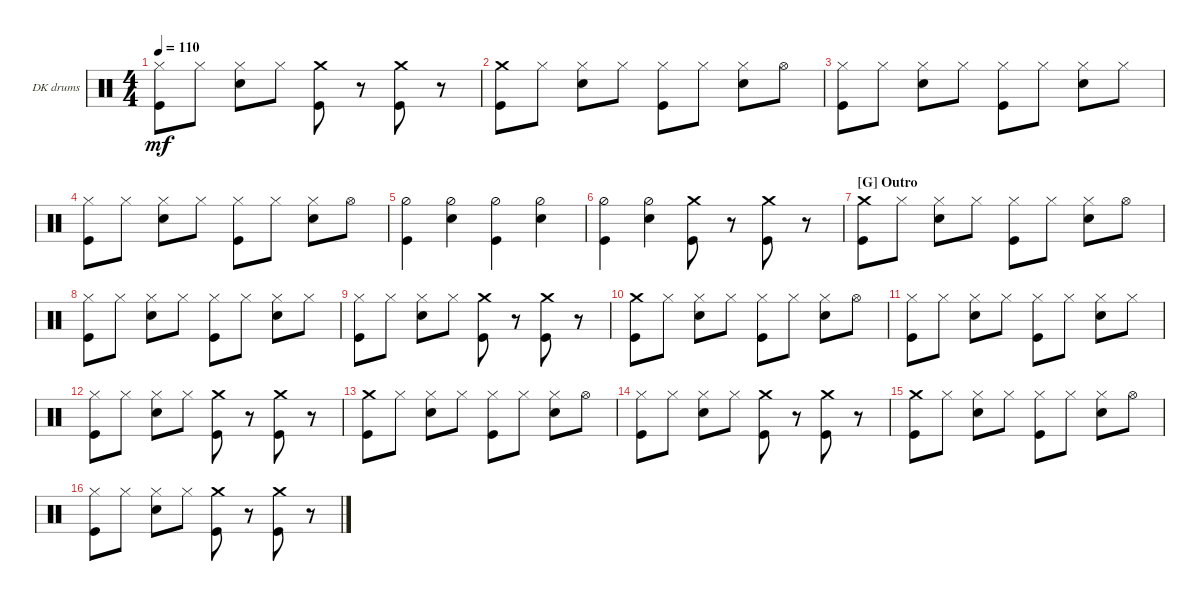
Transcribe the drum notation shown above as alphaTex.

\defaultSystemsLayout 4
\bracketExtendMode groupsimilarinstruments
\firstSystemTrackNameOrientation horizontal
\otherSystemsTrackNameOrientation horizontal
\track ("Dan Konopka" "DK drums") {instrument percussion}
\staff {score}
\articulation defaults
\ts (4 4)
\tempo 110
\clef neutral
\ks c
("Hi-Hat (closed)" "Kick (hit)").8{dy mf} "Hi-Hat (closed)".8 ("Hi-Hat (closed)" "Snare (hit) 2").8 "Hi-Hat (closed)".8 ("Crash medium (hit)" "Kick (hit)").8 r.8 ("Crash medium (hit)" "Kick (hit)").8 r.8 |
("Crash medium (hit)" "Kick (hit)").8 "Hi-Hat (closed)".8 ("Hi-Hat (closed)" "Snare (hit) 2").8 "Hi-Hat (closed)".8 ("Hi-Hat (closed)" "Kick (hit)").8 "Hi-Hat (closed)".8 ("Hi-Hat (closed)" "Snare (hit) 2").8 "Hi-Hat (open)".8 |
("Hi-Hat (closed)" "Kick (hit)").8 "Hi-Hat (closed)".8 ("Hi-Hat (closed)" "Snare (hit) 2").8 "Hi-Hat (closed)".8 ("Hi-Hat (closed)" "Kick (hit)").8 "Hi-Hat (closed)".8 ("Hi-Hat (closed)" "Snare (hit) 2").8 "Hi-Hat (closed)".8 |
("Hi-Hat (closed)" "Kick (hit)").8 "Hi-Hat (closed)".8 ("Hi-Hat (closed)" "Snare (hit) 2").8 "Hi-Hat (closed)".8 ("Hi-Hat (closed)" "Kick (hit)").8 "Hi-Hat (closed)".8 ("Hi-Hat (closed)" "Snare (hit) 2").8 "Hi-Hat (open)".8 |
("Hi-Hat (half)" "Kick (hit)").4 ("Hi-Hat (half)" "Snare (hit) 2").4 ("Hi-Hat (half)" "Kick (hit)").4 ("Hi-Hat (half)" "Snare (hit) 2").4 |
("Hi-Hat (half)" "Kick (hit)").4 ("Hi-Hat (half)" "Snare (hit) 2").4 ("Crash medium (hit)" "Kick (hit)").8 r.8 ("Crash medium (hit)" "Kick (hit)").8 r.8 |
\section ("G" "Outro")
("Crash medium (hit)" "Kick (hit)").8 "Hi-Hat (closed)".8 ("Hi-Hat (closed)" "Snare (hit) 2").8 "Hi-Hat (closed)".8 ("Hi-Hat (closed)" "Kick (hit)").8 "Hi-Hat (closed)".8 ("Hi-Hat (closed)" "Snare (hit) 2").8 "Hi-Hat (open)".8 |
("Hi-Hat (closed)" "Kick (hit)").8 "Hi-Hat (closed)".8 ("Hi-Hat (closed)" "Snare (hit) 2").8 "Hi-Hat (closed)".8 ("Hi-Hat (closed)" "Kick (hit)").8 "Hi-Hat (closed)".8 ("Hi-Hat (closed)" "Snare (hit) 2").8 "Hi-Hat (closed)".8 |
("Hi-Hat (closed)" "Kick (hit)").8 "Hi-Hat (closed)".8 ("Hi-Hat (closed)" "Snare (hit) 2").8 "Hi-Hat (closed)".8 ("Crash medium (hit)" "Kick (hit)").8 r.8 ("Crash medium (hit)" "Kick (hit)").8 r.8 |
("Crash medium (hit)" "Kick (hit)").8 "Hi-Hat (closed)".8 ("Hi-Hat (closed)" "Snare (hit) 2").8 "Hi-Hat (closed)".8 ("Hi-Hat (closed)" "Kick (hit)").8 "Hi-Hat (closed)".8 ("Hi-Hat (closed)" "Snare (hit) 2").8 "Hi-Hat (open)".8 |
("Hi-Hat (closed)" "Kick (hit)").8 "Hi-Hat (closed)".8 ("Hi-Hat (closed)" "Snare (hit) 2").8 "Hi-Hat (closed)".8 ("Hi-Hat (closed)" "Kick (hit)").8 "Hi-Hat (closed)".8 ("Hi-Hat (closed)" "Snare (hit) 2").8 "Hi-Hat (closed)".8 |
("Hi-Hat (closed)" "Kick (hit)").8 "Hi-Hat (closed)".8 ("Hi-Hat (closed)" "Snare (hit) 2").8 "Hi-Hat (closed)".8 ("Crash medium (hit)" "Kick (hit)").8 r.8 ("Crash medium (hit)" "Kick (hit)").8 r.8 |
("Crash medium (hit)" "Kick (hit)").8 "Hi-Hat (closed)".8 ("Hi-Hat (closed)" "Snare (hit) 2").8 "Hi-Hat (closed)".8 ("Hi-Hat (closed)" "Kick (hit)").8 "Hi-Hat (closed)".8 ("Hi-Hat (closed)" "Snare (hit) 2").8 "Hi-Hat (open)".8 |
("Hi-Hat (closed)" "Kick (hit)").8 "Hi-Hat (closed)".8 ("Hi-Hat (closed)" "Snare (hit) 2").8 "Hi-Hat (closed)".8 ("Crash medium (hit)" "Kick (hit)").8 r.8 ("Crash medium (hit)" "Kick (hit)").8 r.8 |
("Crash medium (hit)" "Kick (hit)").8 "Hi-Hat (closed)".8 ("Hi-Hat (closed)" "Snare (hit) 2").8 "Hi-Hat (closed)".8 ("Hi-Hat (closed)" "Kick (hit)").8 "Hi-Hat (closed)".8 ("Hi-Hat (closed)" "Snare (hit) 2").8 "Hi-Hat (open)".8 |
("Hi-Hat (closed)" "Kick (hit)").8 "Hi-Hat (closed)".8 ("Hi-Hat (closed)" "Snare (hit) 2").8 "Hi-Hat (closed)".8 ("Crash medium (hit)" "Kick (hit)").8 r.8 ("Crash medium (hit)" "Kick (hit)").8 r.8
